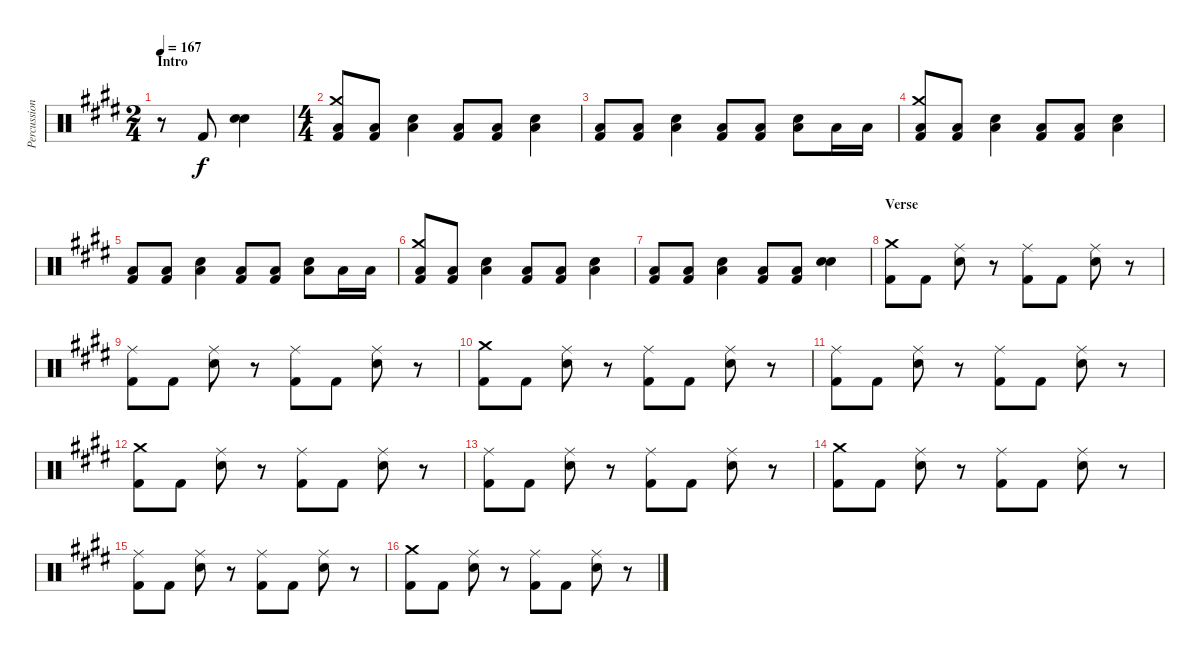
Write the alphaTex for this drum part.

\track ("Percussion" "Percussion") {instrument percussion}
\staff {score}
\articulation defaults
\ts (2 4)
\section ("" "Intro")
\tempo 167
\clef neutral
\ks e
r.8{dy f} "Kick (hit) 2".8 ("Electric Snare (hit)" "Electric Snare (hit)").4{bu 240} |
\ts (4 4)
("Crash medium (hit)" "Low Floor Tom (hit)" "Kick (hit) 2").8 ("Low Floor Tom (hit)" "Kick (hit) 2").8 ("Low Floor Tom (hit)" "Electric Snare (hit)").4 ("Low Floor Tom (hit)" "Kick (hit) 2").8 ("Low Floor Tom (hit)" "Kick (hit) 2").8 ("Low Floor Tom (hit)" "Electric Snare (hit)").4 |
("Low Floor Tom (hit)" "Kick (hit) 2").8 ("Low Floor Tom (hit)" "Kick (hit) 2").8 ("Low Floor Tom (hit)" "Electric Snare (hit)").4 ("Low Floor Tom (hit)" "Kick (hit) 2").8 ("Low Floor Tom (hit)" "Kick (hit) 2").8 ("Low Floor Tom (hit)" "Electric Snare (hit)").8 "Low Floor Tom (hit)".16 "Low Floor Tom (hit)".16 |
("Crash medium (hit)" "Low Floor Tom (hit)" "Kick (hit) 2").8 ("Low Floor Tom (hit)" "Kick (hit) 2").8 ("Low Floor Tom (hit)" "Electric Snare (hit)").4 ("Low Floor Tom (hit)" "Kick (hit) 2").8 ("Low Floor Tom (hit)" "Kick (hit) 2").8 ("Low Floor Tom (hit)" "Electric Snare (hit)").4 |
("Low Floor Tom (hit)" "Kick (hit) 2").8 ("Low Floor Tom (hit)" "Kick (hit) 2").8 ("Low Floor Tom (hit)" "Electric Snare (hit)").4 ("Low Floor Tom (hit)" "Kick (hit) 2").8 ("Low Floor Tom (hit)" "Kick (hit) 2").8 ("Low Floor Tom (hit)" "Electric Snare (hit)").8 "Low Floor Tom (hit)".16 "Low Floor Tom (hit)".16 |
("Crash medium (hit)" "Low Floor Tom (hit)" "Kick (hit) 2").8 ("Low Floor Tom (hit)" "Kick (hit) 2").8 ("Low Floor Tom (hit)" "Electric Snare (hit)").4 ("Low Floor Tom (hit)" "Kick (hit) 2").8 ("Low Floor Tom (hit)" "Kick (hit) 2").8 ("Low Floor Tom (hit)" "Electric Snare (hit)").4 |
("Low Floor Tom (hit)" "Kick (hit) 2").8 ("Low Floor Tom (hit)" "Kick (hit) 2").8 ("Low Floor Tom (hit)" "Electric Snare (hit)").4 ("Low Floor Tom (hit)" "Kick (hit) 2").8 ("Low Floor Tom (hit)" "Kick (hit) 2").8 ("Electric Snare (hit)" "Electric Snare (hit)").4{bu 240} |
\section ("" "Verse")
("Crash medium (hit)" "Kick (hit) 2").8 "Kick (hit) 2".8 ("Ride (middle)" "Electric Snare (hit)").8 r.8 ("Ride (middle)" "Kick (hit) 2").8 "Kick (hit) 2".8 ("Ride (middle)" "Electric Snare (hit)").8 r.8 |
("Ride (middle)" "Kick (hit) 2").8 "Kick (hit) 2".8 ("Ride (middle)" "Electric Snare (hit)").8 r.8 ("Ride (middle)" "Kick (hit) 2").8 "Kick (hit) 2".8 ("Ride (middle)" "Electric Snare (hit)").8 r.8 |
("Crash medium (hit)" "Kick (hit) 2").8 "Kick (hit) 2".8 ("Ride (middle)" "Electric Snare (hit)").8 r.8 ("Ride (middle)" "Kick (hit) 2").8 "Kick (hit) 2".8 ("Ride (middle)" "Electric Snare (hit)").8 r.8 |
("Ride (middle)" "Kick (hit) 2").8 "Kick (hit) 2".8 ("Ride (middle)" "Electric Snare (hit)").8 r.8 ("Ride (middle)" "Kick (hit) 2").8 "Kick (hit) 2".8 ("Ride (middle)" "Electric Snare (hit)").8 r.8 |
("Crash medium (hit)" "Kick (hit) 2").8 "Kick (hit) 2".8 ("Ride (middle)" "Electric Snare (hit)").8 r.8 ("Ride (middle)" "Kick (hit) 2").8 "Kick (hit) 2".8 ("Ride (middle)" "Electric Snare (hit)").8 r.8 |
("Ride (middle)" "Kick (hit) 2").8 "Kick (hit) 2".8 ("Ride (middle)" "Electric Snare (hit)").8 r.8 ("Ride (middle)" "Kick (hit) 2").8 "Kick (hit) 2".8 ("Ride (middle)" "Electric Snare (hit)").8 r.8 |
("Crash medium (hit)" "Kick (hit) 2").8 "Kick (hit) 2".8 ("Ride (middle)" "Electric Snare (hit)").8 r.8 ("Ride (middle)" "Kick (hit) 2").8 "Kick (hit) 2".8 ("Ride (middle)" "Electric Snare (hit)").8 r.8 |
("Ride (middle)" "Kick (hit) 2").8 "Kick (hit) 2".8 ("Ride (middle)" "Electric Snare (hit)").8 r.8 ("Ride (middle)" "Kick (hit) 2").8 "Kick (hit) 2".8 ("Ride (middle)" "Electric Snare (hit)").8 r.8 |
("Crash medium (hit)" "Kick (hit) 2").8 "Kick (hit) 2".8 ("Ride (middle)" "Electric Snare (hit)").8 r.8 ("Ride (middle)" "Kick (hit) 2").8 "Kick (hit) 2".8 ("Ride (middle)" "Electric Snare (hit)").8 r.8
